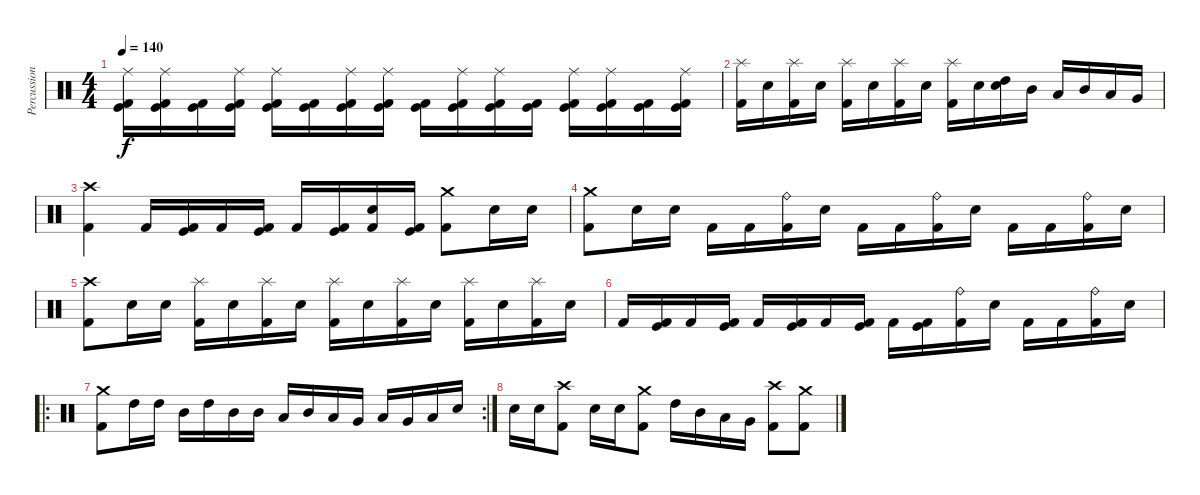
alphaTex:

\track ("Percussion" "Percussion") {instrument percussion}
\staff {score}
\articulation defaults
\ts (4 4)
\tempo 140
\clef neutral
\ks c
("Ride (middle)" "Kick (hit) 2" "Kick (hit)").16{dy f} ("Ride (middle)" "Kick (hit) 2" "Kick (hit)").16 ("Kick (hit) 2" "Kick (hit)").16 ("Ride (middle)" "Kick (hit) 2" "Kick (hit)").16 ("Ride (middle)" "Kick (hit) 2" "Kick (hit)").16 ("Kick (hit) 2" "Kick (hit)").16 ("Ride (middle)" "Kick (hit) 2" "Kick (hit)").16 ("Ride (middle)" "Kick (hit) 2" "Kick (hit)").16 ("Kick (hit) 2" "Kick (hit)").16 ("Ride (middle)" "Kick (hit) 2" "Kick (hit)").16 ("Ride (middle)" "Kick (hit) 2" "Kick (hit)").16 ("Kick (hit) 2" "Kick (hit)").16 ("Ride (middle)" "Kick (hit) 2" "Kick (hit)").16 ("Ride (middle)" "Kick (hit) 2" "Kick (hit)").16 ("Kick (hit) 2" "Kick (hit)").16 ("Ride (middle)" "Kick (hit) 2" "Kick (hit)").16 |
("Splash (hit)" "Kick (hit) 2").16 "Electric Snare (hit)".16 ("Splash (hit)" "Kick (hit) 2").16 "Electric Snare (hit)".16 ("Splash (hit)" "Kick (hit) 2").16 "Electric Snare (hit)".16 ("Splash (hit)" "Kick (hit) 2").16 "Electric Snare (hit)".16 ("Splash (hit)" "Kick (hit) 2").16 "Electric Snare (hit)".16 ("Snare (hit)" "High Tom (hit)").16 "Mid Tom (hit)".16 "Low Tom (hit)".16 "Mid Tom (hit)".16 "Low Tom (hit)".16 "Very Low Tom (hit)".16 |
("Crash high (hit)" "Kick (hit) 2").4 "Kick (hit) 2".16 ("Kick (hit) 2" "Kick (hit)").16 "Kick (hit) 2".16 ("Kick (hit) 2" "Kick (hit)").16 "Kick (hit) 2".16 ("Kick (hit) 2" "Kick (hit)").16 ("Kick (hit) 2" "Snare (hit)").16 ("Kick (hit) 2" "Kick (hit)").16 ("Crash medium (hit)" "Kick (hit) 2").8 "Electric Snare (hit)".16 "Electric Snare (hit)".16 |
("Crash medium (hit)" "Kick (hit) 2").8 "Electric Snare (hit)".16 "Electric Snare (hit)".16 "Kick (hit) 2".16 "Kick (hit) 2".16 ("Ride (bell)" "Kick (hit) 2").16 "Electric Snare (hit)".16 "Kick (hit) 2".16 "Kick (hit) 2".16 ("Ride (bell)" "Kick (hit) 2").16 "Electric Snare (hit)".16 "Kick (hit) 2".16 "Kick (hit) 2".16 ("Ride (bell)" "Kick (hit) 2").16 "Electric Snare (hit)".16 |
("Crash high (hit)" "Kick (hit) 2").8 "Electric Snare (hit)".16 "Electric Snare (hit)".16 ("Splash (hit)" "Kick (hit) 2").16 "Electric Snare (hit)".16 ("Splash (hit)" "Kick (hit) 2").16 "Electric Snare (hit)".16 ("Splash (hit)" "Kick (hit) 2").16 "Electric Snare (hit)".16 ("Splash (hit)" "Kick (hit) 2").16 "Electric Snare (hit)".16 ("Splash (hit)" "Kick (hit) 2").16 "Electric Snare (hit)".16 ("Splash (hit)" "Kick (hit) 2").16 "Electric Snare (hit)".16 |
"Kick (hit) 2".16 ("Kick (hit) 2" "Kick (hit)").16 "Kick (hit) 2".16 ("Kick (hit) 2" "Kick (hit)").16 "Kick (hit) 2".16 ("Kick (hit) 2" "Kick (hit)").16 "Kick (hit) 2".16 ("Kick (hit) 2" "Kick (hit)").16 "Kick (hit) 2".16 ("Kick (hit) 2" "Kick (hit)").16 ("Ride (bell)" "Kick (hit) 2").16 "Electric Snare (hit)".16 "Kick (hit) 2".16 "Kick (hit) 2".16 ("Ride (bell)" "Kick (hit) 2").16 "Electric Snare (hit)".16 |
\ro
\rc 2
("Crash medium (hit)" "Kick (hit) 2").8 "High Tom (hit)".16 "High Tom (hit)".16 "Mid Tom (hit)".16 "High Tom (hit)".16 "Mid Tom (hit)".16 "Mid Tom (hit)".16 "Low Tom (hit)".16 "Mid Tom (hit)".16 "Low Tom (hit)".16 "Very Low Tom (hit)".16 "Low Tom (hit)".16 "Very Low Tom (hit)".16 "Low Floor Tom (hit)".16 "Electric Snare (hit)".16 |
"Electric Snare (hit)".16 "Electric Snare (hit)".16 ("Crash high (hit)" "Kick (hit) 2").8 "Electric Snare (hit)".16 "Electric Snare (hit)".16 ("Crash medium (hit)" "Kick (hit) 2").8 "High Tom (hit)".16 "Mid Tom (hit)".16 "Low Tom (hit)".16 "Very Low Tom (hit)".16 ("Crash high (hit)" "Kick (hit) 2").8 ("Crash medium (hit)" "Kick (hit) 2").8
